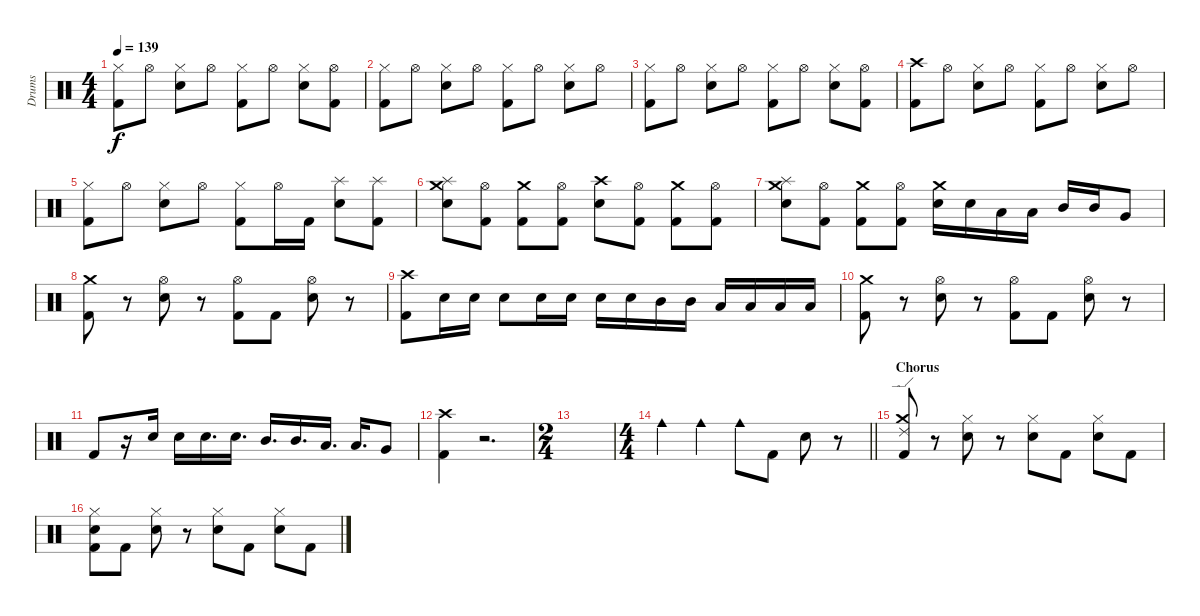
\track ("Drums" "Drums") {instrument percussion}
\staff {score}
\articulation defaults
\ts (4 4)
\tempo 139
\clef neutral
\ks c
("Hi-Hat (closed)" "Kick (hit) 2").8{dy f} "Hi-Hat (open)".8 ("Hi-Hat (closed)" "Electric Snare (hit)").8 "Hi-Hat (open)".8 ("Hi-Hat (closed)" "Kick (hit) 2").8 "Hi-Hat (open)".8 ("Hi-Hat (closed)" "Electric Snare (hit)").8 ("Hi-Hat (open)" "Kick (hit) 2").8 |
("Hi-Hat (closed)" "Kick (hit) 2").8 "Hi-Hat (open)".8 ("Hi-Hat (closed)" "Electric Snare (hit)").8 "Hi-Hat (open)".8 ("Hi-Hat (closed)" "Kick (hit) 2").8 "Hi-Hat (open)".8 ("Hi-Hat (closed)" "Electric Snare (hit)").8 "Hi-Hat (open)".8 |
("Hi-Hat (closed)" "Kick (hit) 2").8 "Hi-Hat (open)".8 ("Hi-Hat (closed)" "Electric Snare (hit)").8 "Hi-Hat (open)".8 ("Hi-Hat (closed)" "Kick (hit) 2").8 "Hi-Hat (open)".8 ("Hi-Hat (closed)" "Electric Snare (hit)").8 ("Hi-Hat (open)" "Kick (hit) 2").8 |
("Crash high (hit)" "Kick (hit) 2").8 "Hi-Hat (open)".8 ("Hi-Hat (closed)" "Electric Snare (hit)").8 "Hi-Hat (open)".8 ("Hi-Hat (closed)" "Kick (hit) 2").8 "Hi-Hat (open)".8 ("Hi-Hat (closed)" "Electric Snare (hit)").8 "Hi-Hat (open)".8 |
("Hi-Hat (closed)" "Kick (hit) 2").8 "Hi-Hat (open)".8 ("Hi-Hat (closed)" "Electric Snare (hit)").8 "Hi-Hat (open)".8 ("Hi-Hat (closed)" "Kick (hit) 2").8 "Hi-Hat (open)".16 "Kick (hit) 2".16 ("Splash (hit)" "Electric Snare (hit)").8 ("Splash (hit)" "Kick (hit) 2").8 |
("Splash (hit)" "Crash medium (hit)" "Electric Snare (hit)").8 ("Hi-Hat (open)" "Kick (hit) 2").8 ("Crash medium (hit)" "Kick (hit) 2").8 ("Hi-Hat (open)" "Kick (hit) 2").8 ("Crash high (hit)" "Electric Snare (hit)").8 ("Hi-Hat (open)" "Kick (hit) 2").8 ("Crash medium (hit)" "Kick (hit) 2").8 ("Hi-Hat (open)" "Kick (hit) 2").8 |
("Splash (hit)" "Crash medium (hit)" "Electric Snare (hit)").8 ("Hi-Hat (open)" "Kick (hit) 2").8 ("Crash medium (hit)" "Kick (hit) 2").8 ("Hi-Hat (open)" "Kick (hit) 2").8 ("Crash medium (hit)" "Electric Snare (hit)").16 "Electric Snare (hit)".16 "Low Tom (hit)".16 "Low Tom (hit)".16 "Mid Tom (hit)".16 "Mid Tom (hit)".16 "Very Low Tom (hit)".8 |
("Crash medium (hit)" "Kick (hit) 2").8 r.8 ("Hi-Hat (open)" "Electric Snare (hit)").8 r.8 ("Hi-Hat (open)" "Kick (hit) 2").8 "Kick (hit) 2".8 ("Hi-Hat (open)" "Electric Snare (hit)").8 r.8 |
("Crash high (hit)" "Kick (hit) 2").8 "Electric Snare (hit)".16 "Electric Snare (hit)".16 "Electric Snare (hit)".8 "Electric Snare (hit)".16 "Electric Snare (hit)".16 "Electric Snare (hit)".16 "Electric Snare (hit)".16 "Mid Tom (hit)".16 "Mid Tom (hit)".16 "Low Tom (hit)".16 "Low Tom (hit)".16 "Low Floor Tom (hit)".16 "Low Floor Tom (hit)".16 |
("Crash medium (hit)" "Kick (hit) 2").8 r.8 ("Hi-Hat (open)" "Electric Snare (hit)").8 r.8 ("Hi-Hat (open)" "Kick (hit) 2").8 "Kick (hit) 2".8 ("Hi-Hat (open)" "Electric Snare (hit)").8 r.8 |
"Kick (hit) 2".8 r.16 "Electric Snare (hit)".16 "Electric Snare (hit)".16 "Electric Snare (hit)".16{d} "Electric Snare (hit)".16{d} "Mid Tom (hit)".16{d} "Mid Tom (hit)".16{d} "Low Tom (hit)".16{d} "Low Tom (hit)".16{d} "Very Low Tom (hit)".8 |
("Crash high (hit)" "Kick (hit) 2").4 r.2{d} |
\ts (2 4)
|
\ts (4 4)
\barLineRight lightlight "Cowbell medium (hit)".4 "Cowbell medium (hit)".4 "Cowbell medium (hit)".8 "Kick (hit) 2".8 "Electric Snare (hit)".8
r.8 |
\section ("" "Chorus")
("Ride (edge) 2" "Crash medium (hit)" "Kick (hit) 2").8 r.8 ("Hi-Hat (closed)" "Electric Snare (hit)").8 r.8 ("Hi-Hat (closed)" "Electric Snare (hit)").8 "Kick (hit) 2".8 ("Hi-Hat (closed)" "Electric Snare (hit)").8 "Kick (hit) 2".8 |
("Hi-Hat (closed)" "Electric Snare (hit)" "Kick (hit) 2").8 "Kick (hit) 2".8 ("Hi-Hat (closed)" "Electric Snare (hit)").8 r.8 ("Hi-Hat (closed)" "Electric Snare (hit)").8 "Kick (hit) 2".8 ("Hi-Hat (closed)" "Electric Snare (hit)").8 "Kick (hit) 2".8
